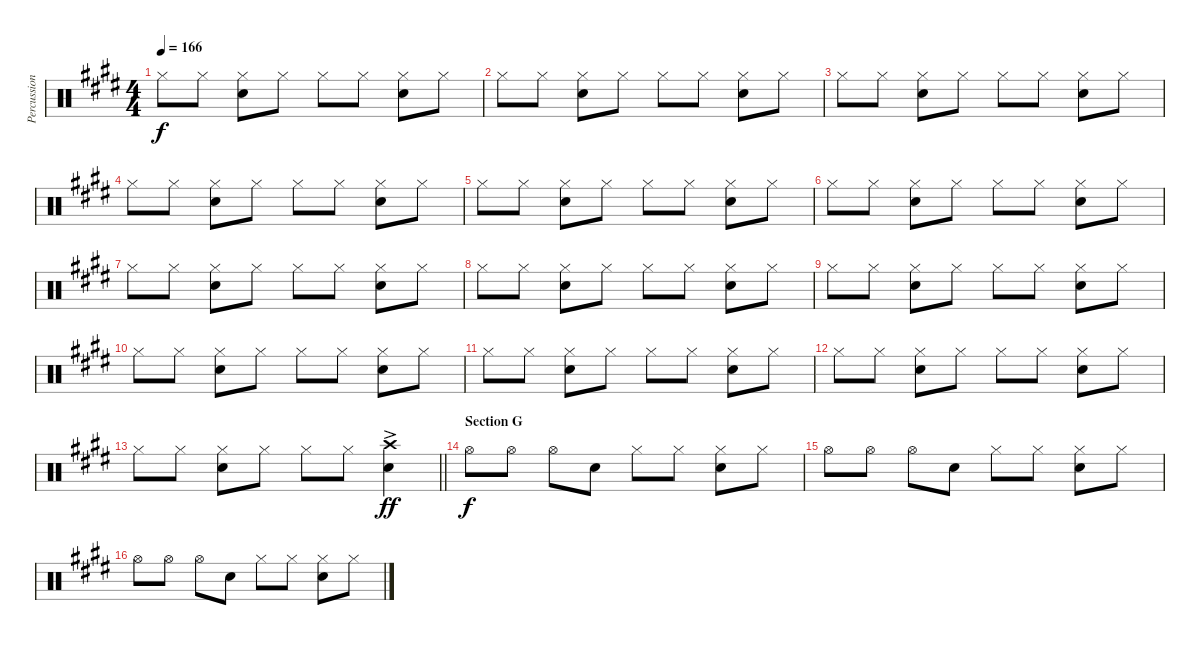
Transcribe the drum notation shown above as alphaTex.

\track ("Percussion - Other Again" "Percussion") {instrument percussion}
\staff {score}
\articulation defaults
\ts (4 4)
\tempo 166
\clef neutral
\ks e "Hi-Hat (closed)".8{dy f} "Hi-Hat (closed)".8
("Hi-Hat (closed)" "Snare (hit) 2").8 "Hi-Hat (closed)".8 "Hi-Hat (closed)".8 "Hi-Hat (closed)".8 ("Hi-Hat (closed)" "Snare (hit) 2").8 "Hi-Hat (closed)".8 |
"Hi-Hat (closed)".8 "Hi-Hat (closed)".8 ("Hi-Hat (closed)" "Snare (hit) 2").8 "Hi-Hat (closed)".8 "Hi-Hat (closed)".8 "Hi-Hat (closed)".8 ("Hi-Hat (closed)" "Snare (hit) 2").8 "Hi-Hat (closed)".8 |
"Hi-Hat (closed)".8 "Hi-Hat (closed)".8 ("Hi-Hat (closed)" "Snare (hit) 2").8 "Hi-Hat (closed)".8 "Hi-Hat (closed)".8 "Hi-Hat (closed)".8 ("Hi-Hat (closed)" "Snare (hit) 2").8 "Hi-Hat (closed)".8 |
"Hi-Hat (closed)".8 "Hi-Hat (closed)".8 ("Hi-Hat (closed)" "Snare (hit) 2").8 "Hi-Hat (closed)".8 "Hi-Hat (closed)".8 "Hi-Hat (closed)".8 ("Hi-Hat (closed)" "Snare (hit) 2").8 "Hi-Hat (closed)".8 |
"Hi-Hat (closed)".8 "Hi-Hat (closed)".8 ("Hi-Hat (closed)" "Snare (hit) 2").8 "Hi-Hat (closed)".8 "Hi-Hat (closed)".8 "Hi-Hat (closed)".8 ("Hi-Hat (closed)" "Snare (hit) 2").8 "Hi-Hat (closed)".8 |
"Hi-Hat (closed)".8 "Hi-Hat (closed)".8 ("Hi-Hat (closed)" "Snare (hit) 2").8 "Hi-Hat (closed)".8 "Hi-Hat (closed)".8 "Hi-Hat (closed)".8 ("Hi-Hat (closed)" "Snare (hit) 2").8 "Hi-Hat (closed)".8 |
"Hi-Hat (closed)".8 "Hi-Hat (closed)".8 ("Hi-Hat (closed)" "Snare (hit) 2").8 "Hi-Hat (closed)".8 "Hi-Hat (closed)".8 "Hi-Hat (closed)".8 ("Hi-Hat (closed)" "Snare (hit) 2").8 "Hi-Hat (closed)".8 |
"Hi-Hat (closed)".8 "Hi-Hat (closed)".8 ("Hi-Hat (closed)" "Snare (hit) 2").8 "Hi-Hat (closed)".8 "Hi-Hat (closed)".8 "Hi-Hat (closed)".8 ("Hi-Hat (closed)" "Snare (hit) 2").8 "Hi-Hat (closed)".8 |
"Hi-Hat (closed)".8 "Hi-Hat (closed)".8 ("Hi-Hat (closed)" "Snare (hit) 2").8 "Hi-Hat (closed)".8 "Hi-Hat (closed)".8 "Hi-Hat (closed)".8 ("Hi-Hat (closed)" "Snare (hit) 2").8 "Hi-Hat (closed)".8 |
"Hi-Hat (closed)".8 "Hi-Hat (closed)".8 ("Hi-Hat (closed)" "Snare (hit) 2").8 "Hi-Hat (closed)".8 "Hi-Hat (closed)".8 "Hi-Hat (closed)".8 ("Hi-Hat (closed)" "Snare (hit) 2").8 "Hi-Hat (closed)".8 |
"Hi-Hat (closed)".8 "Hi-Hat (closed)".8 ("Hi-Hat (closed)" "Snare (hit) 2").8 "Hi-Hat (closed)".8 "Hi-Hat (closed)".8 "Hi-Hat (closed)".8 ("Hi-Hat (closed)" "Snare (hit) 2").8 "Hi-Hat (closed)".8 |
"Hi-Hat (closed)".8 "Hi-Hat (closed)".8 ("Hi-Hat (closed)" "Snare (hit) 2").8 "Hi-Hat (closed)".8 "Hi-Hat (closed)".8 "Hi-Hat (closed)".8 ("Hi-Hat (closed)" "Snare (hit) 2").8 "Hi-Hat (closed)".8 |
\barLineRight lightlight "Hi-Hat (closed)".8 "Hi-Hat (closed)".8
("Hi-Hat (closed)" "Snare (hit) 2").8 "Hi-Hat (closed)".8 "Hi-Hat (closed)".8 "Hi-Hat (closed)".8 ("Crash high (hit)"{ac} "Snare (hit) 2").4{dy ff} |
\section ("" "Section G")
"Hi-Hat (open)".8{dy f} "Hi-Hat (open)".8 "Hi-Hat (open)".8 "Snare (hit) 2".8 "Hi-Hat (closed)".8 "Hi-Hat (closed)".8 ("Hi-Hat (closed)" "Snare (hit) 2").8 "Hi-Hat (closed)".8 |
"Hi-Hat (open)".8 "Hi-Hat (open)".8 "Hi-Hat (open)".8 "Snare (hit) 2".8 "Hi-Hat (closed)".8 "Hi-Hat (closed)".8 ("Hi-Hat (closed)" "Snare (hit) 2").8 "Hi-Hat (closed)".8 |
"Hi-Hat (open)".8 "Hi-Hat (open)".8 "Hi-Hat (open)".8 "Snare (hit) 2".8 "Hi-Hat (closed)".8 "Hi-Hat (closed)".8 ("Hi-Hat (closed)" "Snare (hit) 2").8 "Hi-Hat (closed)".8
